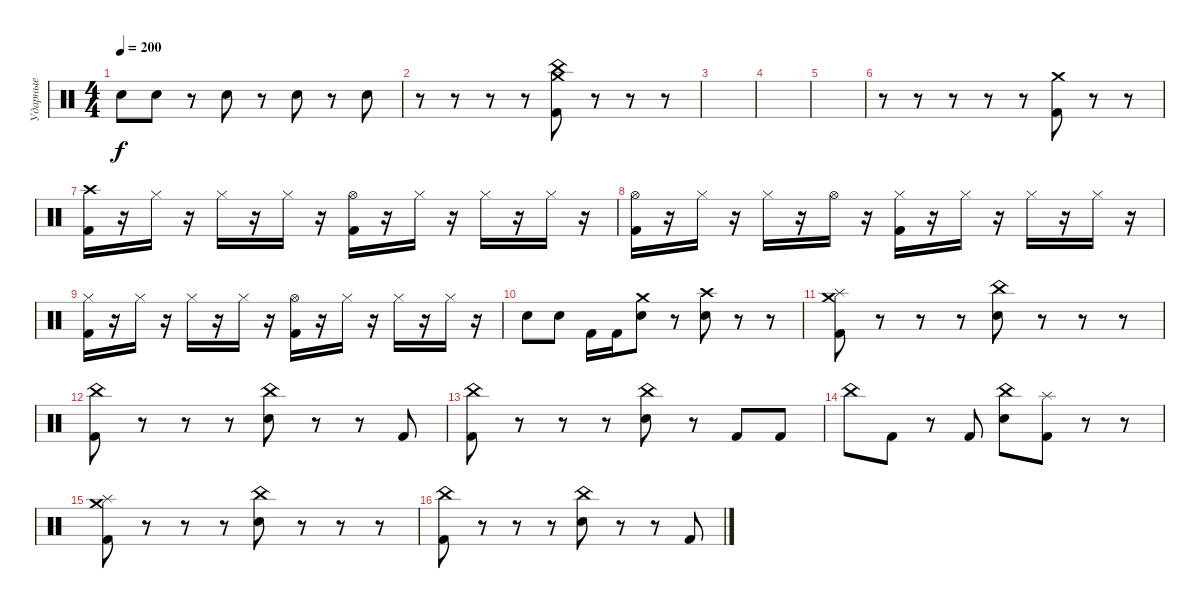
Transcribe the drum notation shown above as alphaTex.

\track ("Ударные" "Ударные") {instrument percussion}
\staff {score}
\articulation defaults
\ts (4 4)
\tempo 200
\clef neutral
\ks c "Electric Snare (hit)".8{dy f} "Electric Snare (hit)".8
r.8 "Electric Snare (hit)".8 r.8 "Electric Snare (hit)".8 r.8 "Electric Snare (hit)".8 |
r.8 r.8 r.8 r.8 ("Kick (hit) 2" "China (hit)" "Crash medium (hit)").8 r.8 r.8 r.8 |
|
|
|
r.8 r.8 r.8 r.8 r.8 ("Kick (hit) 2" "Crash medium (hit)").8 r.8 r.8 |
("Kick (hit) 2" "Crash high (hit)").16 r.16 "Hi-Hat (closed)".16 r.16 "Hi-Hat (closed)".16 r.16 "Hi-Hat (closed)".16 r.16 ("Kick (hit) 2" "Hi-Hat (open)").16 r.16 "Hi-Hat (closed)".16 r.16 "Hi-Hat (closed)".16 r.16 "Hi-Hat (closed)".16 r.16 |
("Kick (hit) 2" "Hi-Hat (open)").16 r.16 "Hi-Hat (closed)".16 r.16 "Hi-Hat (closed)".16 r.16 "Hi-Hat (open)".16 r.16 ("Kick (hit) 2" "Hi-Hat (closed)").16 r.16 "Hi-Hat (closed)".16 r.16 "Hi-Hat (closed)".16 r.16 "Hi-Hat (closed)".16 r.16 |
("Kick (hit) 2" "Hi-Hat (closed)").16 r.16 "Hi-Hat (closed)".16 r.16 "Hi-Hat (closed)".16 r.16 "Hi-Hat (closed)".16 r.16 ("Kick (hit) 2" "Hi-Hat (open)").16 r.16 "Hi-Hat (closed)".16 r.16 "Hi-Hat (closed)".16 r.16 "Hi-Hat (closed)".16 r.16 |
"Electric Snare (hit)".8 "Electric Snare (hit)".8 "Kick (hit) 2".16 "Kick (hit) 2".16 ("Electric Snare (hit)" "Crash medium (hit)").8 r.8 ("Electric Snare (hit)" "Crash high (hit)").8 r.8 r.8 |
("Kick (hit) 2" "Splash (hit)" "Crash medium (hit)").8 r.8 r.8 r.8 ("Electric Snare (hit)" "China (hit)").8 r.8 r.8 r.8 |
("Kick (hit) 2" "China (hit)").8 r.8 r.8 r.8 ("Electric Snare (hit)" "China (hit)").8 r.8 r.8 "Kick (hit) 2".8 |
("Kick (hit) 2" "China (hit)").8 r.8 r.8 r.8 ("Electric Snare (hit)" "China (hit)").8 r.8 "Kick (hit) 2".8 "Kick (hit) 2".8 |
"China (hit)".8 "Kick (hit) 2".8 r.8 "Kick (hit) 2".8 ("Electric Snare (hit)" "China (hit)").8 ("Kick (hit) 2" "Splash (hit)").8 r.8 r.8 |
("Kick (hit) 2" "Splash (hit)" "Crash medium (hit)").8 r.8 r.8 r.8 ("Electric Snare (hit)" "China (hit)").8 r.8 r.8 r.8 |
("Kick (hit) 2" "China (hit)").8 r.8 r.8 r.8 ("Electric Snare (hit)" "China (hit)").8 r.8 r.8 "Kick (hit) 2".8
